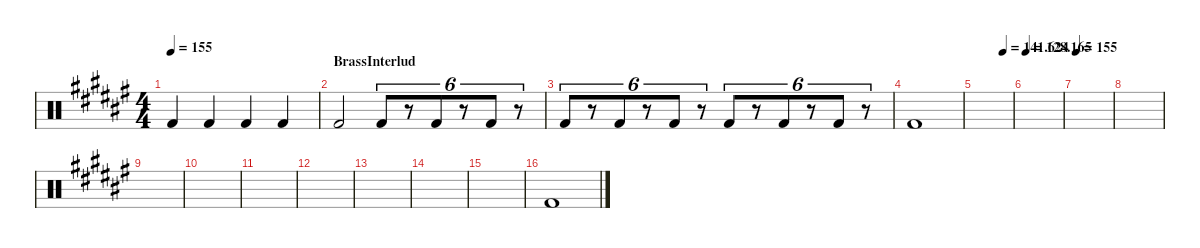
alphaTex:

\hideDynamics
\bracketExtendMode nobrackets
\singleTrackTrackNamePolicy hidden
\multiTrackTrackNamePolicy hidden
\otherSystemsTrackNameOrientation horizontal
\track ("Kick" "Drums") {instrument percussion}
\staff {score}
\articulation defaults
\ts (4 4)
\tempo 155
\clef neutral
\ks f# "Kick (hit) 2"{acc forcenatural}.4{dy mp beam Up} "Kick (hit) 2"{acc forcenatural}.4{beam Up} "Kick (hit) 2"{acc forcenatural}.4{beam Up} "Kick (hit) 2"{acc forcenatural}.4{beam Up}
|
\section ("" "BrassInterlud")
"Kick (hit) 2"{acc forcenatural}.2{dy mf beam Up} "Kick (hit) 2"{acc forcenatural}.8{tu (6 4) dy mp beam Up} r.8{tu (6 4) beam Up} "Kick (hit) 2"{acc forcenatural}.8{tu (6 4) beam Up} r.8{tu (6 4) beam Up} "Kick (hit) 2"{acc forcenatural}.8{tu (6 4) beam Up} r.8{tu (6 4) beam Up} |
"Kick (hit) 2"{acc forcenatural}.8{tu (6 4) beam Up} r.8{tu (6 4) beam Up} "Kick (hit) 2"{acc forcenatural}.8{tu (6 4) beam Up} r.8{tu (6 4) beam Up} "Kick (hit) 2"{acc forcenatural}.8{tu (6 4) beam Up} r.8{tu (6 4) beam Up} "Kick (hit) 2"{acc forcenatural}.8{tu (6 4) beam Up} r.8{tu (6 4) beam Up} "Kick (hit) 2"{acc forcenatural}.8{tu (6 4) beam Up} r.8{tu (6 4) beam Up} "Kick (hit) 2"{acc forcenatural}.8{tu (6 4) beam Up} r.8{tu (6 4) beam Up} |
"Kick (hit) 2"{acc forcenatural}.1{dy mf beam Up} |
\tempo (141.624 0.75)
|
\tempo
128.165 |
\tempo (155 0.00625)
|
|
|
|
|
|
|
|
|
"Kick (hit) 2"{acc forcenatural}.1{beam Up}
